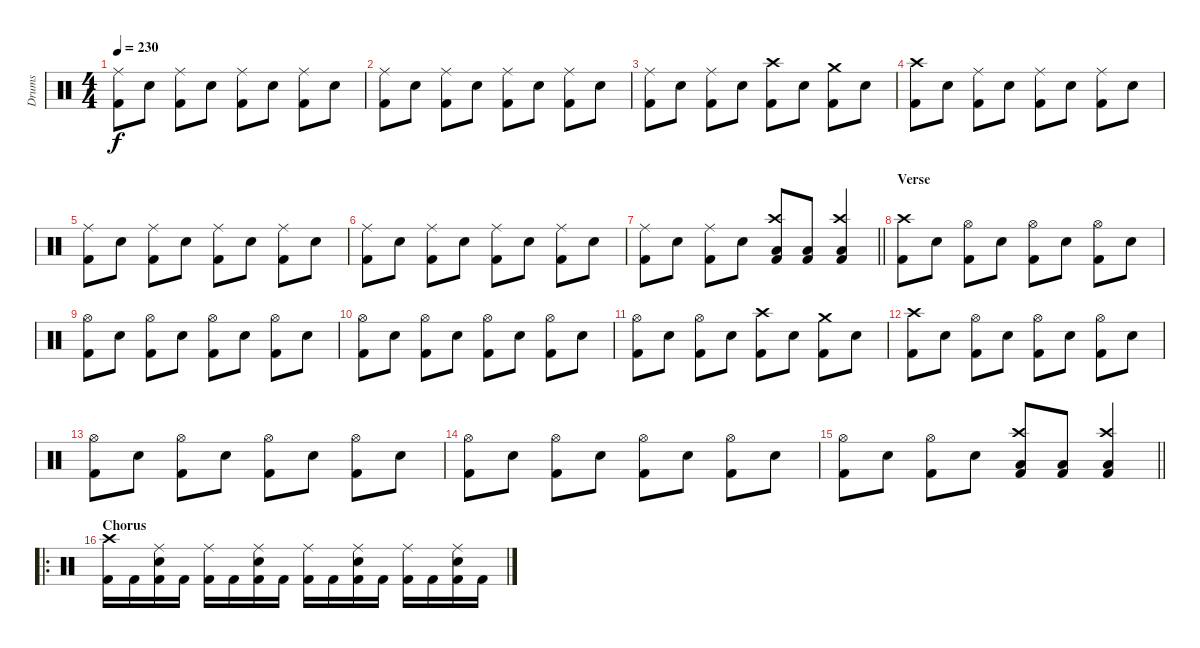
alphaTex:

\track ("Drums" "Drums") {instrument percussion}
\staff {score}
\articulation defaults
\ts (4 4)
\tempo 230
\clef neutral
\ks c
("Ride (middle)" "Kick (hit) 2").8{dy f} "Electric Snare (hit)".8 ("Ride (middle)" "Kick (hit) 2").8 "Electric Snare (hit)".8 ("Ride (middle)" "Kick (hit) 2").8 "Electric Snare (hit)".8 ("Ride (middle)" "Kick (hit) 2").8 "Electric Snare (hit)".8 |
("Ride (middle)" "Kick (hit) 2").8 "Electric Snare (hit)".8 ("Ride (middle)" "Kick (hit) 2").8 "Electric Snare (hit)".8 ("Ride (middle)" "Kick (hit) 2").8 "Electric Snare (hit)".8 ("Ride (middle)" "Kick (hit) 2").8 "Electric Snare (hit)".8 |
("Ride (middle)" "Kick (hit) 2").8 "Electric Snare (hit)".8 ("Ride (middle)" "Kick (hit) 2").8 "Electric Snare (hit)".8 ("Crash high (hit)" "Kick (hit) 2").8 "Electric Snare (hit)".8 ("Crash medium (hit)" "Kick (hit) 2").8 "Electric Snare (hit)".8 |
("Crash high (hit)" "Kick (hit) 2").8 "Electric Snare (hit)".8 ("Ride (middle)" "Kick (hit) 2").8 "Electric Snare (hit)".8 ("Ride (middle)" "Kick (hit) 2").8 "Electric Snare (hit)".8 ("Ride (middle)" "Kick (hit) 2").8 "Electric Snare (hit)".8 |
("Ride (middle)" "Kick (hit) 2").8 "Electric Snare (hit)".8 ("Ride (middle)" "Kick (hit) 2").8 "Electric Snare (hit)".8 ("Ride (middle)" "Kick (hit) 2").8 "Electric Snare (hit)".8 ("Ride (middle)" "Kick (hit) 2").8 "Electric Snare (hit)".8 |
("Ride (middle)" "Kick (hit) 2").8 "Electric Snare (hit)".8 ("Ride (middle)" "Kick (hit) 2").8 "Electric Snare (hit)".8 ("Ride (middle)" "Kick (hit) 2").8 "Electric Snare (hit)".8 ("Ride (middle)" "Kick (hit) 2").8 "Electric Snare (hit)".8 |
\barLineRight lightlight
("Ride (middle)" "Kick (hit) 2").8 "Electric Snare (hit)".8 ("Ride (middle)" "Kick (hit) 2").8 "Electric Snare (hit)".8 ("Crash high (hit)" "Low Tom (hit)" "Kick (hit) 2").8 ("Low Tom (hit)" "Kick (hit) 2").8 ("Crash high (hit)" "Low Tom (hit)" "Kick (hit) 2").4 |
\section ("" "Verse")
("Crash high (hit)" "Kick (hit) 2").8 "Electric Snare (hit)".8 ("Hi-Hat (open)" "Kick (hit) 2").8 "Electric Snare (hit)".8 ("Hi-Hat (open)" "Kick (hit) 2").8 "Electric Snare (hit)".8 ("Hi-Hat (open)" "Kick (hit) 2").8 "Electric Snare (hit)".8 |
("Hi-Hat (open)" "Kick (hit) 2").8 "Electric Snare (hit)".8 ("Hi-Hat (open)" "Kick (hit) 2").8 "Electric Snare (hit)".8 ("Hi-Hat (open)" "Kick (hit) 2").8 "Electric Snare (hit)".8 ("Hi-Hat (open)" "Kick (hit) 2").8 "Electric Snare (hit)".8 |
("Hi-Hat (open)" "Kick (hit) 2").8 "Electric Snare (hit)".8 ("Hi-Hat (open)" "Kick (hit) 2").8 "Electric Snare (hit)".8 ("Hi-Hat (open)" "Kick (hit) 2").8 "Electric Snare (hit)".8 ("Hi-Hat (open)" "Kick (hit) 2").8 "Electric Snare (hit)".8 |
("Hi-Hat (open)" "Kick (hit) 2").8 "Electric Snare (hit)".8 ("Hi-Hat (open)" "Kick (hit) 2").8 "Electric Snare (hit)".8 ("Crash high (hit)" "Kick (hit) 2").8 "Electric Snare (hit)".8 ("Crash medium (hit)" "Kick (hit) 2").8 "Electric Snare (hit)".8 |
("Crash high (hit)" "Kick (hit) 2").8 "Electric Snare (hit)".8 ("Hi-Hat (open)" "Kick (hit) 2").8 "Electric Snare (hit)".8 ("Hi-Hat (open)" "Kick (hit) 2").8 "Electric Snare (hit)".8 ("Hi-Hat (open)" "Kick (hit) 2").8 "Electric Snare (hit)".8 |
("Hi-Hat (open)" "Kick (hit) 2").8 "Electric Snare (hit)".8 ("Hi-Hat (open)" "Kick (hit) 2").8 "Electric Snare (hit)".8 ("Hi-Hat (open)" "Kick (hit) 2").8 "Electric Snare (hit)".8 ("Hi-Hat (open)" "Kick (hit) 2").8 "Electric Snare (hit)".8 |
("Hi-Hat (open)" "Kick (hit) 2").8 "Electric Snare (hit)".8 ("Hi-Hat (open)" "Kick (hit) 2").8 "Electric Snare (hit)".8 ("Hi-Hat (open)" "Kick (hit) 2").8 "Electric Snare (hit)".8 ("Hi-Hat (open)" "Kick (hit) 2").8 "Electric Snare (hit)".8 |
\barLineRight lightlight
("Hi-Hat (open)" "Kick (hit) 2").8 "Electric Snare (hit)".8 ("Hi-Hat (open)" "Kick (hit) 2").8 "Electric Snare (hit)".8 ("Crash high (hit)" "Low Tom (hit)" "Kick (hit) 2").8 ("Low Tom (hit)" "Kick (hit) 2").8 ("Crash high (hit)" "Low Tom (hit)" "Kick (hit) 2").4 |
\ro
\section ("" "Chorus")
("Crash high (hit)" "Kick (hit) 2").16 "Kick (hit) 2".16 ("Ride (middle)" "Electric Snare (hit)" "Kick (hit) 2").16 "Kick (hit) 2".16 ("Ride (middle)" "Kick (hit) 2").16 "Kick (hit) 2".16 ("Ride (middle)" "Electric Snare (hit)" "Kick (hit) 2").16 "Kick (hit) 2".16 ("Ride (middle)" "Kick (hit) 2").16 "Kick (hit) 2".16 ("Ride (middle)" "Electric Snare (hit)" "Kick (hit) 2").16 "Kick (hit) 2".16 ("Ride (middle)" "Kick (hit) 2").16 "Kick (hit) 2".16 ("Ride (middle)" "Electric Snare (hit)" "Kick (hit) 2").16 "Kick (hit) 2".16
